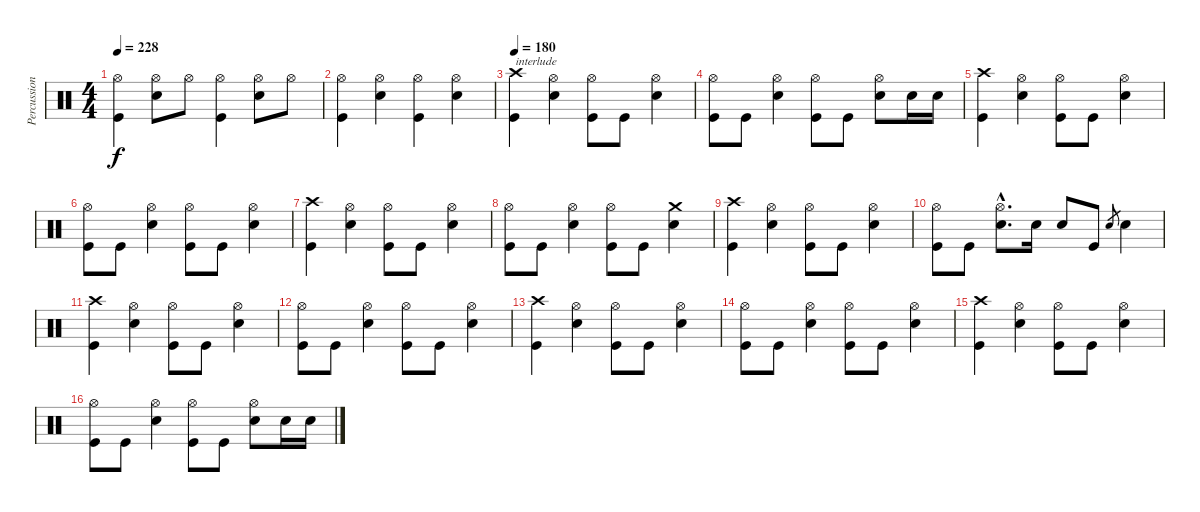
\track ("Percussions" "Percussion") {instrument percussion}
\staff {score}
\articulation defaults
\ts (4 4)
\tempo 228
\clef neutral
\ks c
("Kick (hit)" "Hi-Hat (open)").4{dy f} ("Electric Snare (hit)" "Hi-Hat (open)").8 "Hi-Hat (open)".8 ("Kick (hit)" "Hi-Hat (open)").4 ("Electric Snare (hit)" "Hi-Hat (open)").8 "Hi-Hat (open)".8 |
("Kick (hit)" "Hi-Hat (open)").4 ("Electric Snare (hit)" "Hi-Hat (open)").4 ("Kick (hit)" "Hi-Hat (open)").4 ("Electric Snare (hit)" "Hi-Hat (open)").4 |
\tempo 180
("Kick (hit)" "Crash high (hit)").4{txt "interlude"} ("Electric Snare (hit)" "Hi-Hat (open)").4 ("Kick (hit)" "Hi-Hat (open)").8 "Kick (hit)".8 ("Electric Snare (hit)" "Hi-Hat (open)").4 |
("Kick (hit)" "Hi-Hat (open)").8 "Kick (hit)".8 ("Electric Snare (hit)" "Hi-Hat (open)").4 ("Kick (hit)" "Hi-Hat (open)").8 "Kick (hit)".8 ("Electric Snare (hit)" "Hi-Hat (open)").8 "Electric Snare (hit)".16 "Electric Snare (hit)".16 |
("Kick (hit)" "Crash high (hit)").4 ("Electric Snare (hit)" "Hi-Hat (open)").4 ("Kick (hit)" "Hi-Hat (open)").8 "Kick (hit)".8 ("Electric Snare (hit)" "Hi-Hat (open)").4 |
("Kick (hit)" "Hi-Hat (open)").8 "Kick (hit)".8 ("Electric Snare (hit)" "Hi-Hat (open)").4 ("Kick (hit)" "Hi-Hat (open)").8 "Kick (hit)".8 ("Electric Snare (hit)" "Hi-Hat (open)").4 |
("Kick (hit)" "Crash high (hit)").4 ("Electric Snare (hit)" "Hi-Hat (open)").4 ("Kick (hit)" "Hi-Hat (open)").8 "Kick (hit)".8 ("Electric Snare (hit)" "Hi-Hat (open)").4 |
("Kick (hit)" "Hi-Hat (open)").8 "Kick (hit)".8 ("Electric Snare (hit)" "Hi-Hat (open)").4 ("Kick (hit)" "Hi-Hat (open)").8 "Kick (hit)".8 ("Electric Snare (hit)" "Crash medium (hit)").4 |
("Kick (hit)" "Crash high (hit)").4 ("Electric Snare (hit)" "Hi-Hat (open)").4 ("Kick (hit)" "Hi-Hat (open)").8 "Kick (hit)".8 ("Electric Snare (hit)" "Hi-Hat (open)").4 |
("Kick (hit)" "Hi-Hat (open)").8 "Kick (hit)".8 ("Electric Snare (hit)"{hac} "Hi-Hat (open)"{hac}).8{d} "Electric Snare (hit)".16 "Electric Snare (hit)".8 "Kick (hit)".8 "Electric Snare (hit)".8{gr} "Electric Snare (hit)".4 |
("Kick (hit)" "Crash high (hit)").4 ("Electric Snare (hit)" "Hi-Hat (open)").4 ("Kick (hit)" "Hi-Hat (open)").8 "Kick (hit)".8 ("Electric Snare (hit)" "Hi-Hat (open)").4 |
("Kick (hit)" "Hi-Hat (open)").8 "Kick (hit)".8 ("Electric Snare (hit)" "Hi-Hat (open)").4 ("Kick (hit)" "Hi-Hat (open)").8 "Kick (hit)".8 ("Electric Snare (hit)" "Hi-Hat (open)").4 |
("Kick (hit)" "Crash high (hit)").4 ("Electric Snare (hit)" "Hi-Hat (open)").4 ("Kick (hit)" "Hi-Hat (open)").8 "Kick (hit)".8 ("Electric Snare (hit)" "Hi-Hat (open)").4 |
("Kick (hit)" "Hi-Hat (open)").8 "Kick (hit)".8 ("Electric Snare (hit)" "Hi-Hat (open)").4 ("Kick (hit)" "Hi-Hat (open)").8 "Kick (hit)".8 ("Electric Snare (hit)" "Hi-Hat (open)").4 |
("Kick (hit)" "Crash high (hit)").4 ("Electric Snare (hit)" "Hi-Hat (open)").4 ("Kick (hit)" "Hi-Hat (open)").8 "Kick (hit)".8 ("Electric Snare (hit)" "Hi-Hat (open)").4 |
("Kick (hit)" "Hi-Hat (open)").8 "Kick (hit)".8 ("Electric Snare (hit)" "Hi-Hat (open)").4 ("Kick (hit)" "Hi-Hat (open)").8 "Kick (hit)".8 ("Electric Snare (hit)" "Hi-Hat (open)").8 "Electric Snare (hit)".16 "Electric Snare (hit)".16
